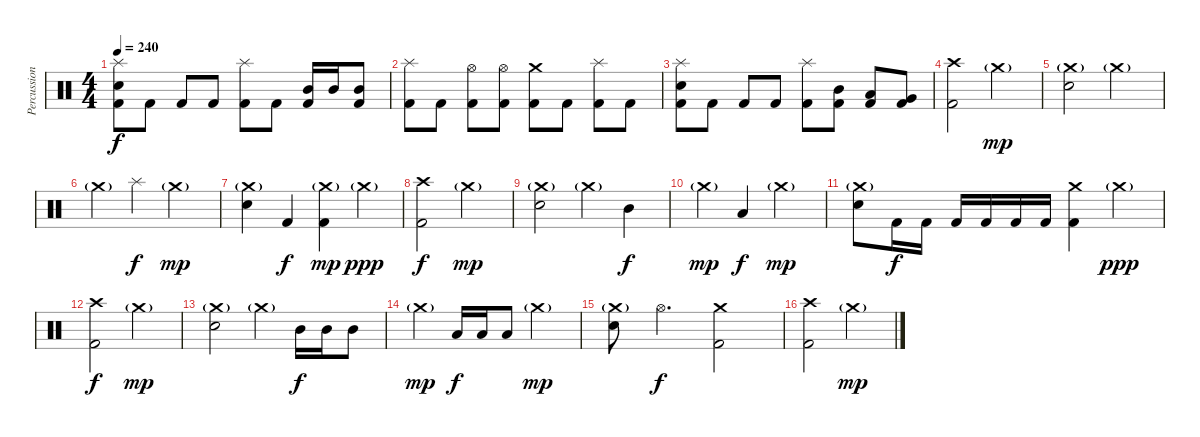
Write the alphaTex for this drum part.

\track ("Percussion" "Percussion") {solo instrument percussion}
\staff {score}
\articulation defaults
\ts (4 4)
\tempo 240
\clef neutral
\ks c
("Splash (hit)" "Electric Snare (hit)" "Kick (hit) 2").8{dy f} "Kick (hit) 2".8 "Kick (hit) 2".8 "Kick (hit) 2".8 ("Splash (hit)" "Kick (hit) 2").8 "Kick (hit) 2".8 ("Mid Tom (hit)" "Kick (hit) 2").16 "Mid Tom (hit)".16 ("Mid Tom (hit)" "Kick (hit) 2").8 |
("Splash (hit)" "Kick (hit) 2").8 "Kick (hit) 2".8 ("Hi-Hat (open)" "Kick (hit) 2").8 ("Hi-Hat (open)" "Kick (hit) 2").8 ("Crash medium (hit)" "Kick (hit) 2").8 "Kick (hit) 2".8 ("Splash (hit)" "Kick (hit) 2").8 "Kick (hit) 2".8 |
("Splash (hit)" "Electric Snare (hit)" "Kick (hit) 2").8 "Kick (hit) 2".8 "Kick (hit) 2".8 "Kick (hit) 2".8 ("Splash (hit)" "Kick (hit) 2").8 ("Mid Tom (hit)" "Kick (hit) 2").8 ("Low Tom (hit)" "Kick (hit) 2").8 ("Very Low Tom (hit)" "Kick (hit) 2").8 |
("Crash high (hit)" "Kick (hit) 2").2 "Crash medium (hit)"{g}.2{dy mp} |
("Crash medium (hit)"{g} "Electric Snare (hit)").2 "Crash medium (hit)"{g}.2 |
"Crash medium (hit)"{g}.4 "Splash (hit)".4{dy f} "Crash medium (hit)"{g}.2{dy mp} |
("Crash medium (hit)"{g} "Electric Snare (hit)").4 "Kick (hit) 2".4{dy f} ("Crash medium (hit)"{g} "Kick (hit) 2").4{dy mp} "Crash medium (hit)"{g}.4{dy ppp} |
("Crash high (hit)" "Kick (hit) 2").2{dy f} "Crash medium (hit)"{g}.2{dy mp} |
("Crash medium (hit)"{g} "Electric Snare (hit)").2 "Crash medium (hit)"{g}.4 "Mid Tom (hit)".4{dy f} |
"Crash medium (hit)"{g}.4{dy mp} "Low Tom (hit)".4{dy f} "Crash medium (hit)"{g}.2{dy mp} |
("Crash medium (hit)"{g} "Electric Snare (hit)").8 "Kick (hit) 2".16{dy f} "Kick (hit) 2".16 "Kick (hit) 2".16 "Kick (hit) 2".16 "Kick (hit) 2".16 "Kick (hit) 2".16 ("Crash medium (hit)" "Kick (hit) 2").4 "Crash medium (hit)"{g}.4{dy ppp} |
("Crash high (hit)" "Kick (hit) 2").2{dy f} "Crash medium (hit)"{g}.2{dy mp} |
("Crash medium (hit)"{g} "Electric Snare (hit)").2 "Crash medium (hit)"{g}.4 "Mid Tom (hit)".16{dy f} "Mid Tom (hit)".16 "Mid Tom (hit)".8 |
"Crash medium (hit)"{g}.4{dy mp} "Low Tom (hit)".16{dy f} "Low Tom (hit)".16 "Low Tom (hit)".8 "Crash medium (hit)"{g}.2{dy mp} |
("Crash medium (hit)"{g} "Electric Snare (hit)").8 "Hi-Hat (open)".4{d dy f} ("Crash medium (hit)" "Kick (hit) 2").2 |
("Crash high (hit)" "Kick (hit) 2").2 "Crash medium (hit)"{g}.2{dy mp}
